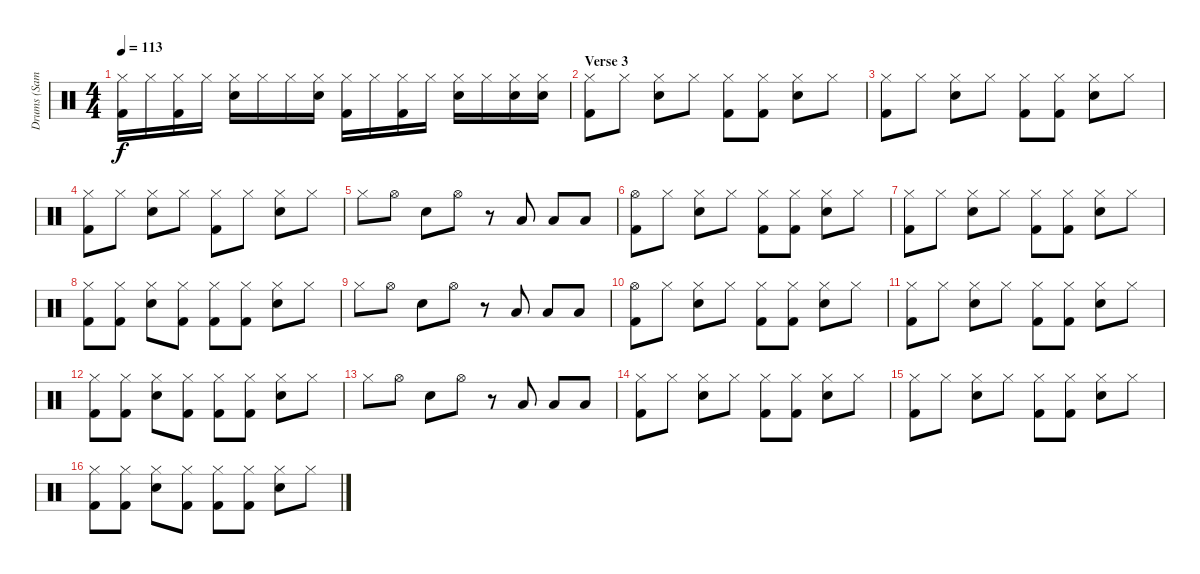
\track ("Drums (Sam)" "Drums (Sam") {instrument percussion}
\staff {score}
\articulation defaults
\ts (4 4)
\tempo 113
\clef neutral
\ks c
("Hi-Hat (closed)" "Kick (hit) 2").16{dy f} "Hi-Hat (closed)".16 ("Hi-Hat (closed)" "Kick (hit) 2").16 "Hi-Hat (closed)".16 ("Hi-Hat (closed)" "Snare (hit) 2").16 "Hi-Hat (closed)".16 "Hi-Hat (closed)".16 ("Hi-Hat (closed)" "Snare (hit) 2").16 ("Hi-Hat (closed)" "Kick (hit) 2").16 "Hi-Hat (closed)".16 ("Hi-Hat (closed)" "Kick (hit) 2").16 "Hi-Hat (closed)".16 ("Hi-Hat (closed)" "Snare (hit) 2").16 "Hi-Hat (closed)".16 ("Hi-Hat (closed)" "Snare (hit) 2").16 ("Hi-Hat (closed)" "Snare (hit) 2").16 |
\section ("" "Verse 3")
("Hi-Hat (closed)" "Kick (hit) 2").8 "Hi-Hat (closed)".8 ("Hi-Hat (closed)" "Snare (hit) 2").8 "Hi-Hat (closed)".8 ("Hi-Hat (closed)" "Kick (hit) 2").8 ("Hi-Hat (closed)" "Kick (hit) 2").8 ("Hi-Hat (closed)" "Snare (hit) 2").8 "Hi-Hat (closed)".8 |
("Hi-Hat (closed)" "Kick (hit) 2").8 "Hi-Hat (closed)".8 ("Hi-Hat (closed)" "Snare (hit) 2").8 "Hi-Hat (closed)".8 ("Hi-Hat (closed)" "Kick (hit) 2").8 ("Hi-Hat (closed)" "Kick (hit) 2").8 ("Hi-Hat (closed)" "Snare (hit) 2").8 "Hi-Hat (closed)".8 |
("Hi-Hat (closed)" "Kick (hit) 2").8 "Hi-Hat (closed)".8 ("Hi-Hat (closed)" "Snare (hit) 2").8 "Hi-Hat (closed)".8 ("Hi-Hat (closed)" "Kick (hit) 2").8 "Hi-Hat (closed)".8 ("Hi-Hat (closed)" "Snare (hit) 2").8 "Hi-Hat (closed)".8 |
"Hi-Hat (closed)".8 "Hi-Hat (open)".8 "Snare (hit) 2".8 "Hi-Hat (open)".8 r.8 "Low Floor Tom (hit)".8 "Low Floor Tom (hit)".8 "Low Tom (hit)".8 |
("Hi-Hat (open)" "Kick (hit) 2").8 "Hi-Hat (closed)".8 ("Hi-Hat (closed)" "Snare (hit) 2").8 "Hi-Hat (closed)".8 ("Hi-Hat (closed)" "Kick (hit) 2").8 ("Hi-Hat (closed)" "Kick (hit) 2").8 ("Hi-Hat (closed)" "Snare (hit) 2").8 "Hi-Hat (closed)".8 |
("Hi-Hat (closed)" "Kick (hit) 2").8 "Hi-Hat (closed)".8 ("Hi-Hat (closed)" "Snare (hit) 2").8 "Hi-Hat (closed)".8 ("Hi-Hat (closed)" "Kick (hit) 2").8 ("Hi-Hat (closed)" "Kick (hit) 2").8 ("Hi-Hat (closed)" "Snare (hit) 2").8 "Hi-Hat (closed)".8 |
("Hi-Hat (closed)" "Kick (hit) 2").8 ("Hi-Hat (closed)" "Kick (hit) 2").8 ("Hi-Hat (closed)" "Snare (hit) 2").8 ("Hi-Hat (closed)" "Kick (hit) 2").8 ("Hi-Hat (closed)" "Kick (hit) 2").8 ("Hi-Hat (closed)" "Kick (hit) 2").8 ("Hi-Hat (closed)" "Snare (hit) 2").8 "Hi-Hat (closed)".8 |
"Hi-Hat (closed)".8 "Hi-Hat (open)".8 "Snare (hit) 2".8 "Hi-Hat (open)".8 r.8 "Low Floor Tom (hit)".8 "Low Floor Tom (hit)".8 "Low Tom (hit)".8 |
("Hi-Hat (open)" "Kick (hit) 2").8 "Hi-Hat (closed)".8 ("Hi-Hat (closed)" "Snare (hit) 2").8 "Hi-Hat (closed)".8 ("Hi-Hat (closed)" "Kick (hit) 2").8 ("Hi-Hat (closed)" "Kick (hit) 2").8 ("Hi-Hat (closed)" "Snare (hit) 2").8 "Hi-Hat (closed)".8 |
("Hi-Hat (closed)" "Kick (hit) 2").8 "Hi-Hat (closed)".8 ("Hi-Hat (closed)" "Snare (hit) 2").8 "Hi-Hat (closed)".8 ("Hi-Hat (closed)" "Kick (hit) 2").8 ("Hi-Hat (closed)" "Kick (hit) 2").8 ("Hi-Hat (closed)" "Snare (hit) 2").8 "Hi-Hat (closed)".8 |
("Hi-Hat (closed)" "Kick (hit) 2").8 ("Hi-Hat (closed)" "Kick (hit) 2").8 ("Hi-Hat (closed)" "Snare (hit) 2").8 ("Hi-Hat (closed)" "Kick (hit) 2").8 ("Hi-Hat (closed)" "Kick (hit) 2").8 ("Hi-Hat (closed)" "Kick (hit) 2").8 ("Hi-Hat (closed)" "Snare (hit) 2").8 "Hi-Hat (closed)".8 |
"Hi-Hat (closed)".8 "Hi-Hat (open)".8 "Snare (hit) 2".8 "Hi-Hat (open)".8 r.8 "Low Floor Tom (hit)".8 "Low Floor Tom (hit)".8 "Low Tom (hit)".8 |
("Hi-Hat (closed)" "Kick (hit) 2").8 "Hi-Hat (closed)".8 ("Hi-Hat (closed)" "Snare (hit) 2").8 "Hi-Hat (closed)".8 ("Hi-Hat (closed)" "Kick (hit) 2").8 ("Hi-Hat (closed)" "Kick (hit) 2").8 ("Hi-Hat (closed)" "Snare (hit) 2").8 "Hi-Hat (closed)".8 |
("Hi-Hat (closed)" "Kick (hit) 2").8 "Hi-Hat (closed)".8 ("Hi-Hat (closed)" "Snare (hit) 2").8 "Hi-Hat (closed)".8 ("Hi-Hat (closed)" "Kick (hit) 2").8 ("Hi-Hat (closed)" "Kick (hit) 2").8 ("Hi-Hat (closed)" "Snare (hit) 2").8 "Hi-Hat (closed)".8 |
("Hi-Hat (closed)" "Kick (hit) 2").8 ("Hi-Hat (closed)" "Kick (hit) 2").8 ("Hi-Hat (closed)" "Snare (hit) 2").8 ("Hi-Hat (closed)" "Kick (hit) 2").8 ("Hi-Hat (closed)" "Kick (hit) 2").8 ("Hi-Hat (closed)" "Kick (hit) 2").8 ("Hi-Hat (closed)" "Snare (hit) 2").8 "Hi-Hat (closed)".8
